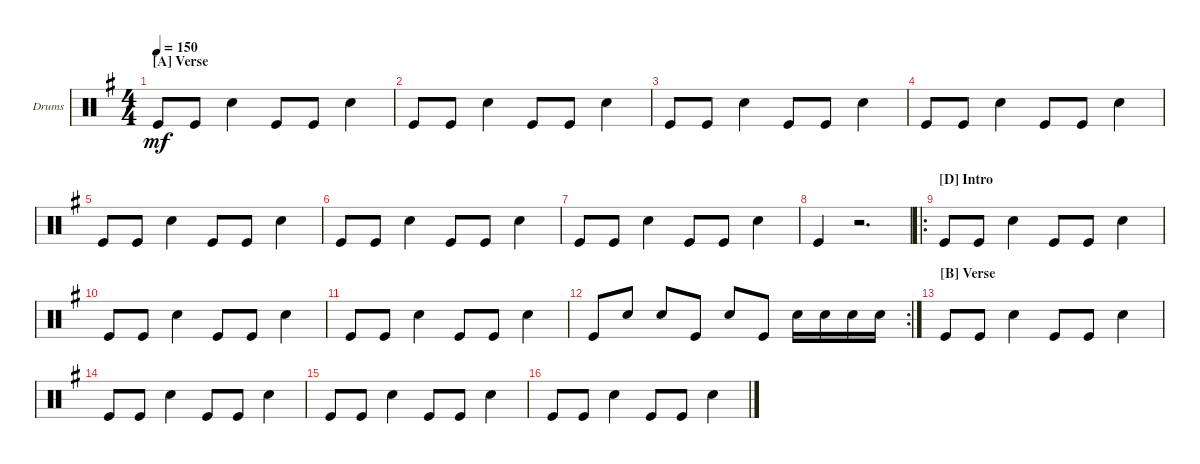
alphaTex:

\defaultSystemsLayout 4
\bracketExtendMode groupsimilarinstruments
\firstSystemTrackNameOrientation horizontal
\otherSystemsTrackNameOrientation horizontal
\track ("Drumkit" "Drums") {instrument percussion}
\staff {score}
\articulation defaults
\ts (4 4)
\section ("A" "Verse")
\tempo 150
\clef neutral
\ks g "Kick (hit)".8{dy mf} "Kick (hit)".8 "Snare (hit) 2".4 "Kick (hit)".8 "Kick (hit)".8 "Snare (hit) 2".4
|
"Kick (hit)".8 "Kick (hit)".8 "Snare (hit) 2".4 "Kick (hit)".8 "Kick (hit)".8 "Snare (hit) 2".4 |
"Kick (hit)".8 "Kick (hit)".8 "Snare (hit) 2".4 "Kick (hit)".8 "Kick (hit)".8 "Snare (hit) 2".4 |
"Kick (hit)".8 "Kick (hit)".8 "Snare (hit) 2".4 "Kick (hit)".8 "Kick (hit)".8 "Snare (hit) 2".4 |
"Kick (hit)".8 "Kick (hit)".8 "Snare (hit) 2".4 "Kick (hit)".8 "Kick (hit)".8 "Snare (hit) 2".4 |
"Kick (hit)".8 "Kick (hit)".8 "Snare (hit) 2".4 "Kick (hit)".8 "Kick (hit)".8 "Snare (hit) 2".4 |
"Kick (hit)".8 "Kick (hit)".8 "Snare (hit) 2".4 "Kick (hit)".8 "Kick (hit)".8 "Snare (hit) 2".4 |
"Kick (hit)".4 r.2{d} |
\ro
\section ("D" "Intro")
"Kick (hit)".8 "Kick (hit)".8 "Snare (hit) 2".4 "Kick (hit)".8 "Kick (hit)".8 "Snare (hit) 2".4 |
"Kick (hit)".8 "Kick (hit)".8 "Snare (hit) 2".4 "Kick (hit)".8 "Kick (hit)".8 "Snare (hit) 2".4 |
"Kick (hit)".8 "Kick (hit)".8 "Snare (hit) 2".4 "Kick (hit)".8 "Kick (hit)".8 "Snare (hit) 2".4 |
\rc 2 "Kick (hit)".8 "Snare (hit) 2".8 "Snare (hit) 2".8 "Kick (hit)".8 "Snare (hit) 2".8 "Kick (hit)".8 "Snare (hit) 2".16 "Snare (hit) 2".16 "Snare (hit) 2".16 "Snare (hit) 2".16
|
\section ("B" "Verse")
"Kick (hit)".8 "Kick (hit)".8 "Snare (hit) 2".4 "Kick (hit)".8 "Kick (hit)".8 "Snare (hit) 2".4 |
"Kick (hit)".8 "Kick (hit)".8 "Snare (hit) 2".4 "Kick (hit)".8 "Kick (hit)".8 "Snare (hit) 2".4 |
"Kick (hit)".8 "Kick (hit)".8 "Snare (hit) 2".4 "Kick (hit)".8 "Kick (hit)".8 "Snare (hit) 2".4 |
"Kick (hit)".8 "Kick (hit)".8 "Snare (hit) 2".4 "Kick (hit)".8 "Kick (hit)".8 "Snare (hit) 2".4
